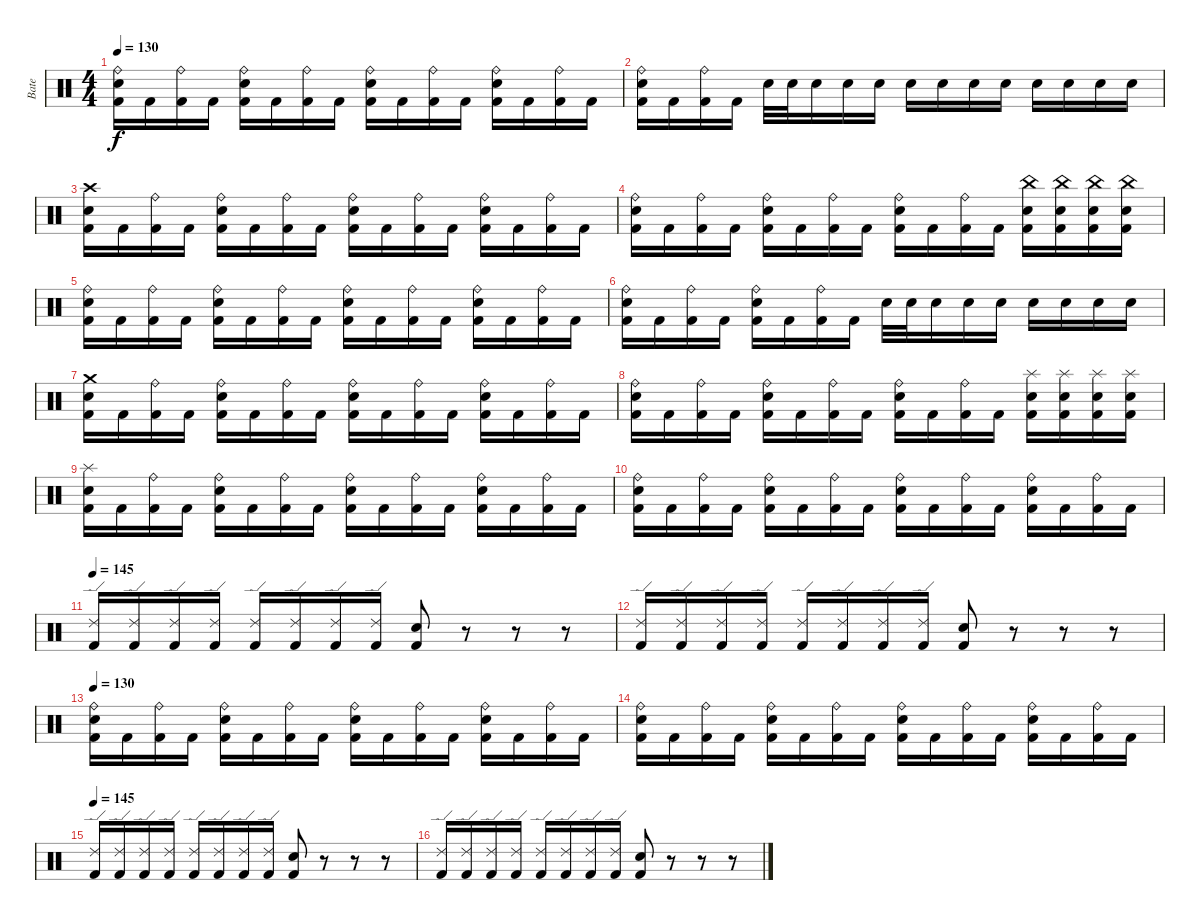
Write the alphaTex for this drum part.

\track ("Bate" "Bate") {instrument percussion}
\staff {score}
\articulation defaults
\ts (4 4)
\tempo 130
\clef neutral
\ks c
("Ride (bell)" "Snare (hit) 2" "Kick (hit) 2").16{dy f} "Kick (hit) 2".16 ("Ride (bell)" "Kick (hit) 2").16 "Kick (hit) 2".16 ("Ride (bell)" "Snare (hit) 2" "Kick (hit) 2").16 "Kick (hit) 2".16 ("Ride (bell)" "Kick (hit) 2").16 "Kick (hit) 2".16 ("Ride (bell)" "Snare (hit) 2" "Kick (hit) 2").16 "Kick (hit) 2".16 ("Ride (bell)" "Kick (hit) 2").16 "Kick (hit) 2".16 ("Ride (bell)" "Snare (hit) 2" "Kick (hit) 2").16 "Kick (hit) 2".16 ("Ride (bell)" "Kick (hit) 2").16 "Kick (hit) 2".16 |
("Ride (bell)" "Snare (hit) 2" "Kick (hit) 2").16 "Kick (hit) 2".16 ("Ride (bell)" "Kick (hit) 2").16 "Kick (hit) 2".16 "Snare (hit) 2".32 "Snare (hit) 2".32 "Snare (hit) 2".16 "Snare (hit) 2".16 "Snare (hit) 2".16 "Snare (hit) 2".16 "Snare (hit) 2".16 "Snare (hit) 2".16 "Snare (hit) 2".16 "Snare (hit) 2".16 "Snare (hit) 2".16 "Snare (hit) 2".16 "Snare (hit) 2".16 |
("Crash high (hit)" "Snare (hit) 2" "Kick (hit) 2").16 "Kick (hit) 2".16 ("Ride (bell)" "Kick (hit) 2").16 "Kick (hit) 2".16 ("Ride (bell)" "Snare (hit) 2" "Kick (hit) 2").16 "Kick (hit) 2".16 ("Ride (bell)" "Kick (hit) 2").16 "Kick (hit) 2".16 ("Ride (bell)" "Snare (hit) 2" "Kick (hit) 2").16 "Kick (hit) 2".16 ("Ride (bell)" "Kick (hit) 2").16 "Kick (hit) 2".16 ("Ride (bell)" "Snare (hit) 2" "Kick (hit) 2").16 "Kick (hit) 2".16 ("Ride (bell)" "Kick (hit) 2").16 "Kick (hit) 2".16 |
("Ride (bell)" "Snare (hit) 2" "Kick (hit) 2").16 "Kick (hit) 2".16 ("Ride (bell)" "Kick (hit) 2").16 "Kick (hit) 2".16 ("Ride (bell)" "Snare (hit) 2" "Kick (hit) 2").16 "Kick (hit) 2".16 ("Ride (bell)" "Kick (hit) 2").16 "Kick (hit) 2".16 ("Ride (bell)" "Snare (hit) 2" "Kick (hit) 2").16 "Kick (hit) 2".16 ("Ride (bell)" "Kick (hit) 2").16 "Kick (hit) 2".16 ("China (hit)" "Snare (hit) 2" "Kick (hit) 2").16 ("China (hit)" "Snare (hit) 2" "Kick (hit) 2").16 ("China (hit)" "Snare (hit) 2" "Kick (hit) 2").16 ("China (hit)" "Snare (hit) 2" "Kick (hit) 2").16 |
("Ride (bell)" "Snare (hit) 2" "Kick (hit) 2").16 "Kick (hit) 2".16 ("Ride (bell)" "Kick (hit) 2").16 "Kick (hit) 2".16 ("Ride (bell)" "Snare (hit) 2" "Kick (hit) 2").16 "Kick (hit) 2".16 ("Ride (bell)" "Kick (hit) 2").16 "Kick (hit) 2".16 ("Ride (bell)" "Snare (hit) 2" "Kick (hit) 2").16 "Kick (hit) 2".16 ("Ride (bell)" "Kick (hit) 2").16 "Kick (hit) 2".16 ("Ride (bell)" "Snare (hit) 2" "Kick (hit) 2").16 "Kick (hit) 2".16 ("Ride (bell)" "Kick (hit) 2").16 "Kick (hit) 2".16 |
("Ride (bell)" "Snare (hit) 2" "Kick (hit) 2").16 "Kick (hit) 2".16 ("Ride (bell)" "Kick (hit) 2").16 "Kick (hit) 2".16 ("Ride (bell)" "Snare (hit) 2" "Kick (hit) 2").16 "Kick (hit) 2".16 ("Ride (bell)" "Kick (hit) 2").16 "Kick (hit) 2".16 "Snare (hit) 2".32 "Snare (hit) 2".32 "Snare (hit) 2".16 "Snare (hit) 2".16 "Snare (hit) 2".16 "Snare (hit) 2".16 "Snare (hit) 2".16 "Snare (hit) 2".16 "Snare (hit) 2".16 |
("Crash medium (hit)" "Snare (hit) 2" "Kick (hit) 2").16 "Kick (hit) 2".16 ("Ride (bell)" "Kick (hit) 2").16 "Kick (hit) 2".16 ("Ride (bell)" "Snare (hit) 2" "Kick (hit) 2").16 "Kick (hit) 2".16 ("Ride (bell)" "Kick (hit) 2").16 "Kick (hit) 2".16 ("Ride (bell)" "Snare (hit) 2" "Kick (hit) 2").16 "Kick (hit) 2".16 ("Ride (bell)" "Kick (hit) 2").16 "Kick (hit) 2".16 ("Ride (bell)" "Snare (hit) 2" "Kick (hit) 2").16 "Kick (hit) 2".16 ("Ride (bell)" "Kick (hit) 2").16 "Kick (hit) 2".16 |
("Ride (bell)" "Snare (hit) 2" "Kick (hit) 2").16 "Kick (hit) 2".16 ("Ride (bell)" "Kick (hit) 2").16 "Kick (hit) 2".16 ("Ride (bell)" "Snare (hit) 2" "Kick (hit) 2").16 "Kick (hit) 2".16 ("Ride (bell)" "Kick (hit) 2").16 "Kick (hit) 2".16 ("Ride (bell)" "Snare (hit) 2" "Kick (hit) 2").16 "Kick (hit) 2".16 ("Ride (bell)" "Kick (hit) 2").16 "Kick (hit) 2".16 ("Splash (hit)" "Snare (hit) 2" "Kick (hit) 2").16 ("Splash (hit)" "Snare (hit) 2" "Kick (hit) 2").16 ("Splash (hit)" "Snare (hit) 2" "Kick (hit) 2").16 ("Splash (hit)" "Snare (hit) 2" "Kick (hit) 2").16 |
("Splash (hit)" "Snare (hit) 2" "Kick (hit) 2").16 "Kick (hit) 2".16 ("Ride (bell)" "Kick (hit) 2").16 "Kick (hit) 2".16 ("Ride (bell)" "Snare (hit) 2" "Kick (hit) 2").16 "Kick (hit) 2".16 ("Ride (bell)" "Kick (hit) 2").16 "Kick (hit) 2".16 ("Ride (bell)" "Snare (hit) 2" "Kick (hit) 2").16 "Kick (hit) 2".16 ("Ride (bell)" "Kick (hit) 2").16 "Kick (hit) 2".16 ("Ride (bell)" "Snare (hit) 2" "Kick (hit) 2").16 "Kick (hit) 2".16 ("Ride (bell)" "Kick (hit) 2").16 "Kick (hit) 2".16 |
("Ride (bell)" "Snare (hit) 2" "Kick (hit) 2").16 "Kick (hit) 2".16 ("Ride (bell)" "Kick (hit) 2").16 "Kick (hit) 2".16 ("Ride (bell)" "Snare (hit) 2" "Kick (hit) 2").16 "Kick (hit) 2".16 ("Ride (bell)" "Kick (hit) 2").16 "Kick (hit) 2".16 ("Ride (bell)" "Snare (hit) 2" "Kick (hit) 2").16 "Kick (hit) 2".16 ("Ride (bell)" "Kick (hit) 2").16 "Kick (hit) 2".16 ("Ride (bell)" "Snare (hit) 2" "Kick (hit) 2").16 "Kick (hit) 2".16 ("Ride (bell)" "Kick (hit) 2").16 "Kick (hit) 2".16 |
\tempo 145
("Ride (edge) 2" "Kick (hit) 2").16 ("Ride (edge) 2" "Kick (hit) 2").16 ("Ride (edge) 2" "Kick (hit) 2").16 ("Ride (edge) 2" "Kick (hit) 2").16 ("Ride (edge) 2" "Kick (hit) 2").16 ("Ride (edge) 2" "Kick (hit) 2").16 ("Ride (edge) 2" "Kick (hit) 2").16 ("Ride (edge) 2" "Kick (hit) 2").16 ("Snare (hit) 2" "Kick (hit) 2").8 r.8 r.8 r.8 |
("Ride (edge) 2" "Kick (hit) 2").16 ("Ride (edge) 2" "Kick (hit) 2").16 ("Ride (edge) 2" "Kick (hit) 2").16 ("Ride (edge) 2" "Kick (hit) 2").16 ("Ride (edge) 2" "Kick (hit) 2").16 ("Ride (edge) 2" "Kick (hit) 2").16 ("Ride (edge) 2" "Kick (hit) 2").16 ("Ride (edge) 2" "Kick (hit) 2").16 ("Snare (hit) 2" "Kick (hit) 2").8 r.8 r.8 r.8 |
\tempo 130
("Ride (bell)" "Snare (hit) 2" "Kick (hit) 2").16 "Kick (hit) 2".16 ("Ride (bell)" "Kick (hit) 2").16 "Kick (hit) 2".16 ("Ride (bell)" "Snare (hit) 2" "Kick (hit) 2").16 "Kick (hit) 2".16 ("Ride (bell)" "Kick (hit) 2").16 "Kick (hit) 2".16 ("Ride (bell)" "Snare (hit) 2" "Kick (hit) 2").16 "Kick (hit) 2".16 ("Ride (bell)" "Kick (hit) 2").16 "Kick (hit) 2".16 ("Ride (bell)" "Snare (hit) 2" "Kick (hit) 2").16 "Kick (hit) 2".16 ("Ride (bell)" "Kick (hit) 2").16 "Kick (hit) 2".16 |
("Ride (bell)" "Snare (hit) 2" "Kick (hit) 2").16 "Kick (hit) 2".16 ("Ride (bell)" "Kick (hit) 2").16 "Kick (hit) 2".16 ("Ride (bell)" "Snare (hit) 2" "Kick (hit) 2").16 "Kick (hit) 2".16 ("Ride (bell)" "Kick (hit) 2").16 "Kick (hit) 2".16 ("Ride (bell)" "Snare (hit) 2" "Kick (hit) 2").16 "Kick (hit) 2".16 ("Ride (bell)" "Kick (hit) 2").16 "Kick (hit) 2".16 ("Ride (bell)" "Snare (hit) 2" "Kick (hit) 2").16 "Kick (hit) 2".16 ("Ride (bell)" "Kick (hit) 2").16 "Kick (hit) 2".16 |
\tempo 145
("Ride (edge) 2" "Kick (hit) 2").16 ("Ride (edge) 2" "Kick (hit) 2").16 ("Ride (edge) 2" "Kick (hit) 2").16 ("Ride (edge) 2" "Kick (hit) 2").16 ("Ride (edge) 2" "Kick (hit) 2").16 ("Ride (edge) 2" "Kick (hit) 2").16 ("Ride (edge) 2" "Kick (hit) 2").16 ("Ride (edge) 2" "Kick (hit) 2").16 ("Snare (hit) 2" "Kick (hit) 2").8 r.8 r.8 r.8 |
("Ride (edge) 2" "Kick (hit) 2").16 ("Ride (edge) 2" "Kick (hit) 2").16 ("Ride (edge) 2" "Kick (hit) 2").16 ("Ride (edge) 2" "Kick (hit) 2").16 ("Ride (edge) 2" "Kick (hit) 2").16 ("Ride (edge) 2" "Kick (hit) 2").16 ("Ride (edge) 2" "Kick (hit) 2").16 ("Ride (edge) 2" "Kick (hit) 2").16 ("Snare (hit) 2" "Kick (hit) 2").8 r.8 r.8 r.8
